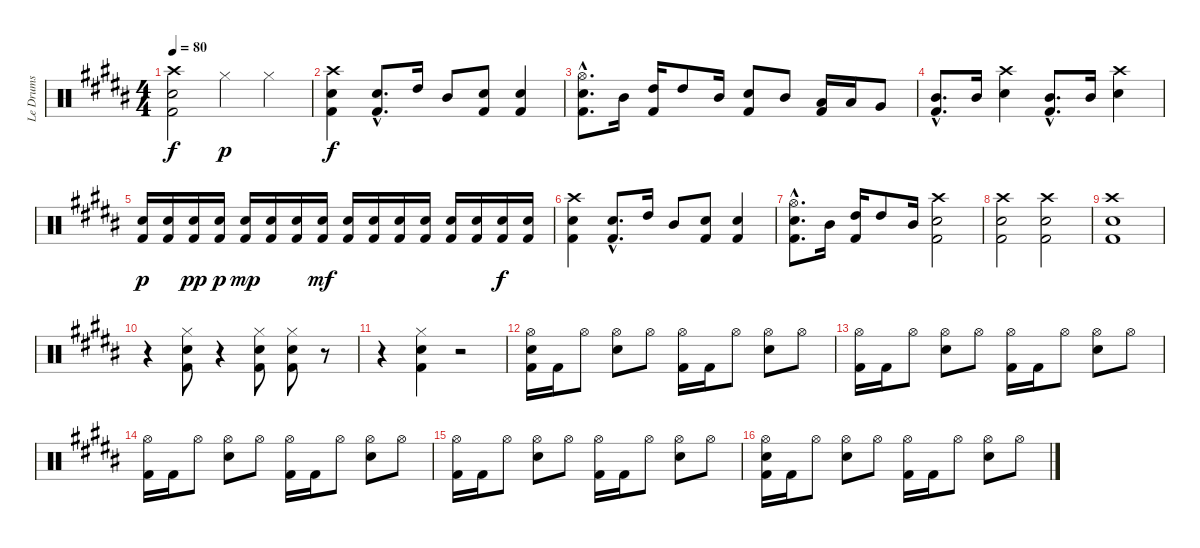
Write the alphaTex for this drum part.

\track ("Le Drums" "Le Drums") {instrument percussion}
\staff {score}
\articulation defaults
\ts (4 4)
\tempo 80
\clef neutral
\ks b
("Crash high (hit)" "Snare (hit) 2" "Kick (hit) 2").2{dy f} "Hi-Hat (closed)".4{dy p} "Hi-Hat (closed)".4 |
("Crash high (hit)" "Snare (hit) 2" "Kick (hit) 2").4{dy f} ("Snare (hit) 2"{hac} "Kick (hit) 2"{hac}).8{d} "High Tom (hit)".16 "Mid Tom (hit)".8 ("Snare (hit) 2" "Kick (hit) 2").8 ("Snare (hit) 2" "Kick (hit) 2").4 |
("Hi-Hat (open)"{hac} "Snare (hit) 2"{hac} "Kick (hit) 2"{hac}).8{d} "Mid Tom (hit)".16 ("High Tom (hit)" "Kick (hit) 2").16 "High Tom (hit)".8 "Mid Tom (hit)".16 ("Snare (hit) 2" "Kick (hit) 2").8 "Mid Tom (hit)".8 ("Low Tom (hit)" "Kick (hit) 2").16 "Low Tom (hit)".16 "Very Low Tom (hit)".8 |
("Mid Tom (hit)"{hac} "Kick (hit) 2"{hac}).8{d} "Mid Tom (hit)".16 ("Crash high (hit)" "Snare (hit) 2").4 ("Mid Tom (hit)"{hac} "Kick (hit) 2"{hac}).8{d} "Mid Tom (hit)".16 ("Crash high (hit)" "Snare (hit) 2").4 |
("Snare (hit) 2" "Kick (hit) 2").16{dy p} ("Snare (hit) 2" "Kick (hit) 2").16 ("Snare (hit) 2" "Kick (hit) 2").16{dy pp} ("Snare (hit) 2" "Kick (hit) 2").16{dy p} ("Snare (hit) 2" "Kick (hit) 2").16{dy mp} ("Snare (hit) 2" "Kick (hit) 2").16 ("Snare (hit) 2" "Kick (hit) 2").16 ("Snare (hit) 2" "Kick (hit) 2").16{dy mf} ("Snare (hit) 2" "Kick (hit) 2").16 ("Snare (hit) 2" "Kick (hit) 2").16 ("Snare (hit) 2" "Kick (hit) 2").16 ("Snare (hit) 2" "Kick (hit) 2").16 ("Snare (hit) 2" "Kick (hit) 2").16 ("Snare (hit) 2" "Kick (hit) 2").16 ("Snare (hit) 2" "Kick (hit) 2").16{dy f} ("Snare (hit) 2" "Kick (hit) 2").16 |
("Crash high (hit)" "Snare (hit) 2" "Kick (hit) 2").4 ("Snare (hit) 2"{hac} "Kick (hit) 2"{hac}).8{d} "High Tom (hit)".16 "Mid Tom (hit)".8 ("Snare (hit) 2" "Kick (hit) 2").8 ("Snare (hit) 2" "Kick (hit) 2").4 |
("Hi-Hat (open)"{hac} "Snare (hit) 2"{hac} "Kick (hit) 2"{hac}).8{d} "Mid Tom (hit)".16 ("High Tom (hit)" "Kick (hit) 2").16 "High Tom (hit)".8 "Mid Tom (hit)".16 ("Crash high (hit)" "Snare (hit) 2" "Kick (hit) 2").2 |
("Crash high (hit)" "Snare (hit) 2" "Kick (hit) 2").2 ("Crash high (hit)" "Snare (hit) 2" "Kick (hit) 2").2 |
("Crash high (hit)" "Snare (hit) 2" "Kick (hit) 2").1 |
r.4 ("Hi-Hat (closed)" "Snare (hit) 2" "Kick (hit) 2").8 r.4 ("Hi-Hat (closed)" "Snare (hit) 2" "Kick (hit) 2").8 ("Hi-Hat (closed)" "Snare (hit) 2" "Kick (hit) 2").8 r.8 |
r.4 ("Hi-Hat (closed)" "Snare (hit) 2" "Kick (hit) 2").4 r.2 |
("Hi-Hat (open)" "Snare (hit) 2" "Kick (hit) 2").16 "Kick (hit) 2".16 "Hi-Hat (open)".8 ("Hi-Hat (open)" "Snare (hit) 2").8 "Hi-Hat (open)".8 ("Hi-Hat (open)" "Kick (hit) 2").16 "Kick (hit) 2".16 "Hi-Hat (open)".8 ("Hi-Hat (open)" "Snare (hit) 2").8 "Hi-Hat (open)".8 |
("Hi-Hat (open)" "Kick (hit) 2").16 "Kick (hit) 2".16 "Hi-Hat (open)".8 ("Hi-Hat (open)" "Snare (hit) 2").8 "Hi-Hat (open)".8 ("Hi-Hat (open)" "Kick (hit) 2").16 "Kick (hit) 2".16 "Hi-Hat (open)".8 ("Hi-Hat (open)" "Snare (hit) 2").8 "Hi-Hat (open)".8 |
("Hi-Hat (open)" "Kick (hit) 2").16 "Kick (hit) 2".16 "Hi-Hat (open)".8 ("Hi-Hat (open)" "Snare (hit) 2").8 "Hi-Hat (open)".8 ("Hi-Hat (open)" "Kick (hit) 2").16 "Kick (hit) 2".16 "Hi-Hat (open)".8 ("Hi-Hat (open)" "Snare (hit) 2").8 "Hi-Hat (open)".8 |
("Hi-Hat (open)" "Kick (hit) 2").16 "Kick (hit) 2".16 "Hi-Hat (open)".8 ("Hi-Hat (open)" "Snare (hit) 2").8 "Hi-Hat (open)".8 ("Hi-Hat (open)" "Kick (hit) 2").16 "Kick (hit) 2".16 "Hi-Hat (open)".8 ("Hi-Hat (open)" "Snare (hit) 2").8 "Hi-Hat (open)".8 |
("Hi-Hat (open)" "Snare (hit) 2" "Kick (hit) 2").16 "Kick (hit) 2".16 "Hi-Hat (open)".8 ("Hi-Hat (open)" "Snare (hit) 2").8 "Hi-Hat (open)".8 ("Hi-Hat (open)" "Kick (hit) 2").16 "Kick (hit) 2".16 "Hi-Hat (open)".8 ("Hi-Hat (open)" "Snare (hit) 2").8 "Hi-Hat (open)".8
